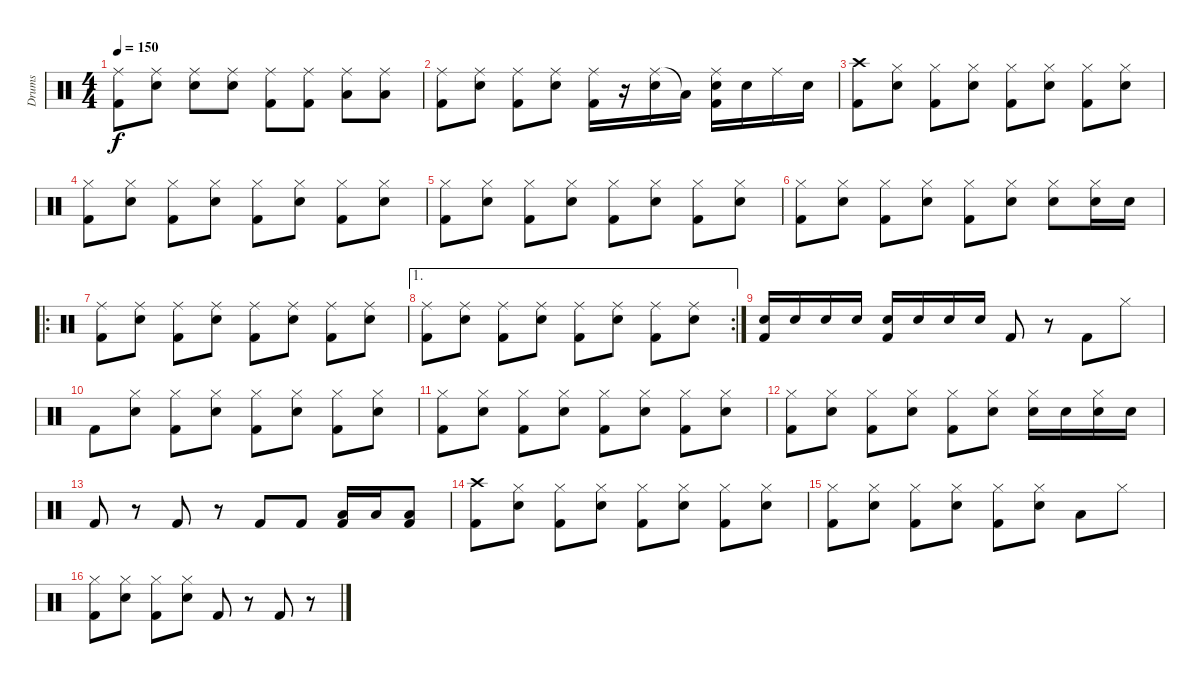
\track ("Drums" "Drums") {instrument percussion}
\staff {score}
\articulation defaults
\ts (4 4)
\tempo 150
\clef neutral
\ks c
("Ride (middle)" "Kick (hit) 2").8{dy f} ("Ride (middle)" "Snare (hit) 2").8 ("Ride (middle)" "Snare (hit) 2").8 ("Ride (middle)" "Snare (hit) 2").8 ("Ride (middle)" "Kick (hit) 2").8 ("Ride (middle)" "Kick (hit) 2").8 ("Ride (middle)" "Low Floor Tom (hit)").8 ("Ride (middle)" "Low Floor Tom (hit)").8 |
("Ride (middle)" "Kick (hit) 2").8 ("Ride (middle)" "Snare (hit) 2").8 ("Ride (middle)" "Kick (hit) 2").8 ("Ride (middle)" "Snare (hit) 2").8 ("Ride (middle)" "Kick (hit) 2").16 r.16 ("Ride (middle)" "Snare (hit) 2").16 "Low Tom (hit)"{t}.16 ("Ride (middle)" "Snare (hit) 2" "Kick (hit) 2").16 "Snare (hit) 2".16 "Ride (middle)".16 "Snare (hit) 2".16 |
("Crash high (hit)" "Kick (hit) 2").8 ("Hi-Hat (closed)" "Snare (hit) 2").8 ("Hi-Hat (closed)" "Kick (hit) 2").8 ("Hi-Hat (closed)" "Snare (hit) 2").8 ("Hi-Hat (closed)" "Kick (hit) 2").8 ("Hi-Hat (closed)" "Snare (hit) 2").8 ("Hi-Hat (closed)" "Kick (hit) 2").8 ("Hi-Hat (closed)" "Snare (hit) 2").8 |
("Hi-Hat (closed)" "Kick (hit) 2").8 ("Hi-Hat (closed)" "Snare (hit) 2").8 ("Hi-Hat (closed)" "Kick (hit) 2").8 ("Hi-Hat (closed)" "Snare (hit) 2").8 ("Hi-Hat (closed)" "Kick (hit) 2").8 ("Hi-Hat (closed)" "Snare (hit) 2").8 ("Hi-Hat (closed)" "Kick (hit) 2").8 ("Hi-Hat (closed)" "Snare (hit) 2").8 |
("Hi-Hat (closed)" "Kick (hit) 2").8 ("Hi-Hat (closed)" "Snare (hit) 2").8 ("Hi-Hat (closed)" "Kick (hit) 2").8 ("Hi-Hat (closed)" "Snare (hit) 2").8 ("Hi-Hat (closed)" "Kick (hit) 2").8 ("Hi-Hat (closed)" "Snare (hit) 2").8 ("Hi-Hat (closed)" "Kick (hit) 2").8 ("Hi-Hat (closed)" "Snare (hit) 2").8 |
("Hi-Hat (closed)" "Kick (hit) 2").8 ("Hi-Hat (closed)" "Snare (hit) 2").8 ("Hi-Hat (closed)" "Kick (hit) 2").8 ("Hi-Hat (closed)" "Snare (hit) 2").8 ("Hi-Hat (closed)" "Kick (hit) 2").8 ("Hi-Hat (closed)" "Snare (hit) 2").8 ("Hi-Hat (closed)" "Snare (hit) 2").8 ("Hi-Hat (closed)" "Snare (hit) 2").16 "Snare (hit) 2".16 |
\ro
("Ride (middle)" "Kick (hit) 2").8 ("Ride (middle)" "Snare (hit) 2").8 ("Ride (middle)" "Kick (hit) 2").8 ("Ride (middle)" "Snare (hit) 2").8 ("Ride (middle)" "Kick (hit) 2").8 ("Ride (middle)" "Snare (hit) 2").8 ("Ride (middle)" "Kick (hit) 2").8 ("Ride (middle)" "Snare (hit) 2").8 |
\ae 1
\rc 2
("Ride (middle)" "Kick (hit) 2").8 ("Ride (middle)" "Snare (hit) 2").8 ("Ride (middle)" "Kick (hit) 2").8 ("Ride (middle)" "Snare (hit) 2").8 ("Ride (middle)" "Kick (hit) 2").8 ("Ride (middle)" "Snare (hit) 2").8 ("Ride (middle)" "Kick (hit) 2").8 ("Ride (middle)" "Snare (hit) 2").8 |
("Snare (hit) 2" "Kick (hit) 2").16 "Snare (hit) 2".16 "Snare (hit) 2".16 "Snare (hit) 2".16 ("Snare (hit) 2" "Kick (hit) 2").16 "Snare (hit) 2".16 "Snare (hit) 2".16 "Snare (hit) 2".16 "Kick (hit) 2".8 r.8 "Kick (hit) 2".8 "Hi-Hat (closed)".8 |
"Kick (hit) 2".8 ("Hi-Hat (closed)" "Snare (hit) 2").8 ("Hi-Hat (closed)" "Kick (hit) 2").8 ("Hi-Hat (closed)" "Snare (hit) 2").8 ("Hi-Hat (closed)" "Kick (hit) 2").8 ("Hi-Hat (closed)" "Snare (hit) 2").8 ("Hi-Hat (closed)" "Kick (hit) 2").8 ("Hi-Hat (closed)" "Snare (hit) 2").8 |
("Hi-Hat (closed)" "Kick (hit) 2").8 ("Hi-Hat (closed)" "Snare (hit) 2").8 ("Hi-Hat (closed)" "Kick (hit) 2").8 ("Hi-Hat (closed)" "Snare (hit) 2").8 ("Hi-Hat (closed)" "Kick (hit) 2").8 ("Hi-Hat (closed)" "Snare (hit) 2").8 ("Hi-Hat (closed)" "Kick (hit) 2").8 ("Hi-Hat (closed)" "Snare (hit) 2").8 |
("Hi-Hat (closed)" "Kick (hit) 2").8 ("Hi-Hat (closed)" "Snare (hit) 2").8 ("Hi-Hat (closed)" "Kick (hit) 2").8 ("Hi-Hat (closed)" "Snare (hit) 2").8 ("Hi-Hat (closed)" "Kick (hit) 2").8 ("Hi-Hat (closed)" "Snare (hit) 2").8 ("Hi-Hat (closed)" "Snare (hit) 2").16 "Snare (hit) 2".16 ("Hi-Hat (closed)" "Snare (hit) 2").16 "Snare (hit) 2".16 |
"Kick (hit) 2".8 r.8 "Kick (hit) 2".8 r.8 "Kick (hit) 2".8 "Kick (hit) 2".8 ("Low Floor Tom (hit)" "Kick (hit) 2").16 "Low Floor Tom (hit)".16 ("Low Floor Tom (hit)" "Kick (hit) 2").8 |
("Crash high (hit)" "Kick (hit) 2").8 ("Hi-Hat (closed)" "Snare (hit) 2").8 ("Hi-Hat (closed)" "Kick (hit) 2").8 ("Hi-Hat (closed)" "Snare (hit) 2").8 ("Hi-Hat (closed)" "Kick (hit) 2").8 ("Hi-Hat (closed)" "Snare (hit) 2").8 ("Hi-Hat (closed)" "Kick (hit) 2").8 ("Hi-Hat (closed)" "Snare (hit) 2").8 |
("Hi-Hat (closed)" "Kick (hit) 2").8 ("Hi-Hat (closed)" "Snare (hit) 2").8 ("Hi-Hat (closed)" "Kick (hit) 2").8 ("Hi-Hat (closed)" "Snare (hit) 2").8 ("Hi-Hat (closed)" "Kick (hit) 2").8 ("Hi-Hat (closed)" "Snare (hit) 2").8 "Low Floor Tom (hit)".8 "Hi-Hat (closed)".8 |
("Hi-Hat (closed)" "Kick (hit) 2").8 ("Hi-Hat (closed)" "Snare (hit) 2").8 ("Hi-Hat (closed)" "Kick (hit) 2").8 ("Hi-Hat (closed)" "Snare (hit) 2").8 "Kick (hit) 2".8 r.8 "Kick (hit) 2".8 r.8
